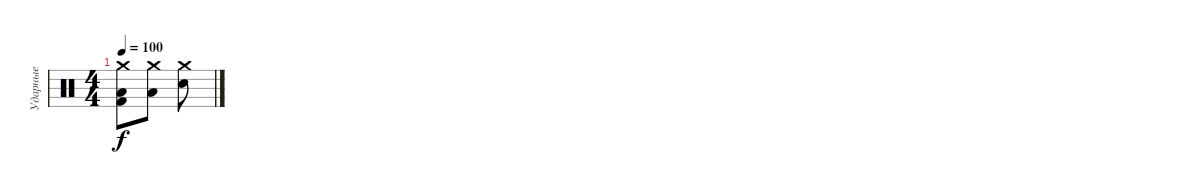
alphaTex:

\track ("Ударные" "Ударные") {instrument percussion}
\staff {score}
\articulation defaults
\ts (4 4)
\tempo 100
\clef neutral
\ks c
("Crash medium (hit)" "Low Floor Tom (hit)" "Kick (hit) 2").8{dy f} ("Crash medium (hit)" "Low Floor Tom (hit)").8 ("Crash medium (hit)" "Electric Snare (hit)").8
